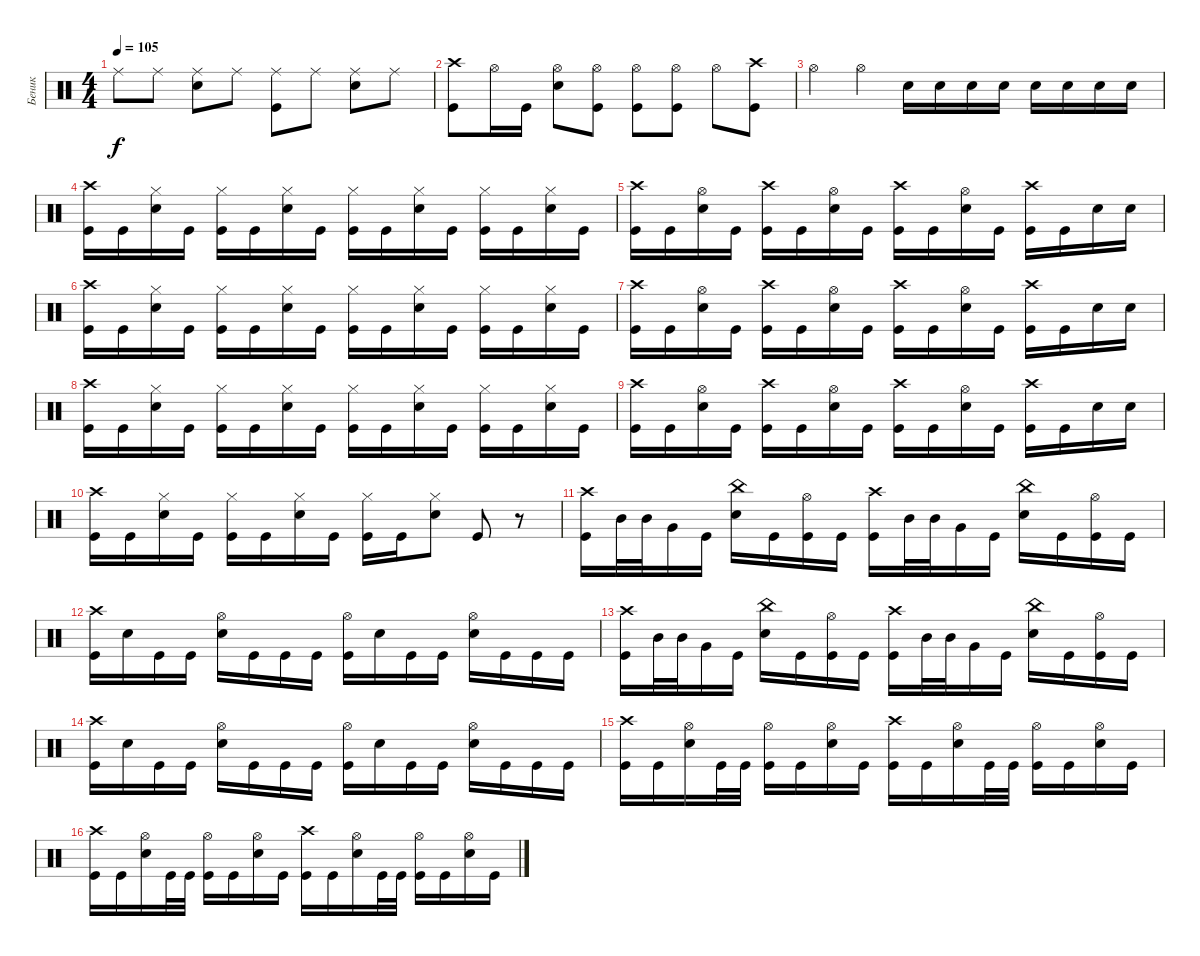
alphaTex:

\track ("Беник" "Беник") {instrument percussion}
\staff {score}
\articulation defaults
\ts (4 4)
\tempo 105
\clef neutral
\ks c "Ride (middle)".8{dy f} "Ride (middle)".8
("Ride (middle)" "Snare (hit) 2").8 "Ride (middle)".8 ("Ride (middle)" "Kick (hit)").8 "Ride (middle)".8 ("Ride (middle)" "Snare (hit) 2").8 "Ride (middle)".8 |
("Crash high (hit)" "Kick (hit)").8 "Hi-Hat (open)".16 "Kick (hit)".16 ("Hi-Hat (open)" "Snare (hit) 2").8 ("Hi-Hat (open)" "Kick (hit)").8 ("Hi-Hat (open)" "Kick (hit)").8 ("Hi-Hat (open)" "Kick (hit)").8 "Hi-Hat (open)".8 ("Kick (hit)" "Crash high (hit)").8 |
"Hi-Hat (open)".4 "Hi-Hat (open)".4 "Snare (hit) 2".16 "Snare (hit) 2".16 "Snare (hit) 2".16 "Snare (hit) 2".16 "Snare (hit) 2".16 "Snare (hit) 2".16 "Snare (hit) 2".16 "Snare (hit) 2".16 |
("Crash high (hit)" "Kick (hit)").16 "Kick (hit)".16 ("Snare (hit) 2" "Hi-Hat (closed)").16 "Kick (hit)".16 ("Kick (hit)" "Hi-Hat (closed)").16 "Kick (hit)".16 ("Snare (hit) 2" "Hi-Hat (closed)").16 "Kick (hit)".16 ("Kick (hit)" "Hi-Hat (closed)").16 "Kick (hit)".16 ("Snare (hit) 2" "Hi-Hat (closed)").16 "Kick (hit)".16 ("Kick (hit)" "Hi-Hat (closed)").16 "Kick (hit)".16 ("Snare (hit) 2" "Hi-Hat (closed)").16 "Kick (hit)".16 |
("Crash high (hit)" "Kick (hit)").16 "Kick (hit)".16 ("Snare (hit) 2" "Hi-Hat (open)").16 "Kick (hit)".16 ("Kick (hit)" "Crash high (hit)").16 "Kick (hit)".16 ("Snare (hit) 2" "Hi-Hat (open)").16 "Kick (hit)".16 ("Kick (hit)" "Crash high (hit)").16 "Kick (hit)".16 ("Snare (hit) 2" "Hi-Hat (open)").16 "Kick (hit)".16 ("Kick (hit)" "Crash high (hit)").16 "Kick (hit)".16 "Snare (hit) 2".16 "Snare (hit) 2".16 |
("Crash high (hit)" "Kick (hit)").16 "Kick (hit)".16 ("Snare (hit) 2" "Hi-Hat (closed)").16 "Kick (hit)".16 ("Kick (hit)" "Hi-Hat (closed)").16 "Kick (hit)".16 ("Snare (hit) 2" "Hi-Hat (closed)").16 "Kick (hit)".16 ("Kick (hit)" "Hi-Hat (closed)").16 "Kick (hit)".16 ("Snare (hit) 2" "Hi-Hat (closed)").16 "Kick (hit)".16 ("Kick (hit)" "Hi-Hat (closed)").16 "Kick (hit)".16 ("Snare (hit) 2" "Hi-Hat (closed)").16 "Kick (hit)".16 |
("Crash high (hit)" "Kick (hit)").16 "Kick (hit)".16 ("Snare (hit) 2" "Hi-Hat (open)").16 "Kick (hit)".16 ("Kick (hit)" "Crash high (hit)").16 "Kick (hit)".16 ("Snare (hit) 2" "Hi-Hat (open)").16 "Kick (hit)".16 ("Kick (hit)" "Crash high (hit)").16 "Kick (hit)".16 ("Snare (hit) 2" "Hi-Hat (open)").16 "Kick (hit)".16 ("Kick (hit)" "Crash high (hit)").16 "Kick (hit)".16 "Snare (hit) 2".16 "Snare (hit) 2".16 |
("Crash high (hit)" "Kick (hit)").16 "Kick (hit)".16 ("Snare (hit) 2" "Hi-Hat (closed)").16 "Kick (hit)".16 ("Kick (hit)" "Hi-Hat (closed)").16 "Kick (hit)".16 ("Snare (hit) 2" "Hi-Hat (closed)").16 "Kick (hit)".16 ("Kick (hit)" "Hi-Hat (closed)").16 "Kick (hit)".16 ("Snare (hit) 2" "Hi-Hat (closed)").16 "Kick (hit)".16 ("Kick (hit)" "Hi-Hat (closed)").16 "Kick (hit)".16 ("Snare (hit) 2" "Hi-Hat (closed)").16 "Kick (hit)".16 |
("Crash high (hit)" "Kick (hit)").16 "Kick (hit)".16 ("Snare (hit) 2" "Hi-Hat (open)").16 "Kick (hit)".16 ("Kick (hit)" "Crash high (hit)").16 "Kick (hit)".16 ("Snare (hit) 2" "Hi-Hat (open)").16 "Kick (hit)".16 ("Kick (hit)" "Crash high (hit)").16 "Kick (hit)".16 ("Snare (hit) 2" "Hi-Hat (open)").16 "Kick (hit)".16 ("Kick (hit)" "Crash high (hit)").16 "Kick (hit)".16 "Snare (hit) 2".16 "Snare (hit) 2".16 |
("Crash high (hit)" "Kick (hit)").16 "Kick (hit)".16 ("Snare (hit) 2" "Hi-Hat (closed)").16 "Kick (hit)".16 ("Kick (hit)" "Hi-Hat (closed)").16 "Kick (hit)".16 ("Snare (hit) 2" "Hi-Hat (closed)").16 "Kick (hit)".16 ("Kick (hit)" "Hi-Hat (closed)").16 "Kick (hit)".16 ("Snare (hit) 2" "Hi-Hat (closed)").8 "Kick (hit)".8 r.8 |
("Kick (hit)" "Crash high (hit)").16 "Mid Tom (hit)".32 "Mid Tom (hit)".32 "Very Low Tom (hit)".16 "Kick (hit)".16 ("Snare (hit) 2" "China (hit)").16 "Kick (hit)".16 ("Kick (hit)" "Hi-Hat (open)").16 "Kick (hit)".16 ("Kick (hit)" "Crash high (hit)").16 "Mid Tom (hit)".32 "Mid Tom (hit)".32 "Very Low Tom (hit)".16 "Kick (hit)".16 ("Snare (hit) 2" "China (hit)").16 "Kick (hit)".16 ("Kick (hit)" "Hi-Hat (open)").16 "Kick (hit)".16 |
("Kick (hit)" "Crash high (hit)").16 "Snare (hit) 2".16 "Kick (hit)".16 "Kick (hit)".16 ("Snare (hit) 2" "Hi-Hat (open)").16 "Kick (hit)".16 "Kick (hit)".16 "Kick (hit)".16 ("Kick (hit)" "Hi-Hat (open)").16 "Snare (hit) 2".16 "Kick (hit)".16 "Kick (hit)".16 ("Snare (hit) 2" "Hi-Hat (open)").16 "Kick (hit)".16 "Kick (hit)".16 "Kick (hit)".16 |
("Kick (hit)" "Crash high (hit)").16 "Mid Tom (hit)".32 "Mid Tom (hit)".32 "Very Low Tom (hit)".16 "Kick (hit)".16 ("Snare (hit) 2" "China (hit)").16 "Kick (hit)".16 ("Kick (hit)" "Hi-Hat (open)").16 "Kick (hit)".16 ("Kick (hit)" "Crash high (hit)").16 "Mid Tom (hit)".32 "Mid Tom (hit)".32 "Very Low Tom (hit)".16 "Kick (hit)".16 ("Snare (hit) 2" "China (hit)").16 "Kick (hit)".16 ("Kick (hit)" "Hi-Hat (open)").16 "Kick (hit)".16 |
("Kick (hit)" "Crash high (hit)").16 "Snare (hit) 2".16 "Kick (hit)".16 "Kick (hit)".16 ("Snare (hit) 2" "Hi-Hat (open)").16 "Kick (hit)".16 "Kick (hit)".16 "Kick (hit)".16 ("Kick (hit)" "Hi-Hat (open)").16 "Snare (hit) 2".16 "Kick (hit)".16 "Kick (hit)".16 ("Snare (hit) 2" "Hi-Hat (open)").16 "Kick (hit)".16 "Kick (hit)".16 "Kick (hit)".16 |
("Kick (hit)" "Crash high (hit)").16 "Kick (hit)".16 ("Snare (hit) 2" "Hi-Hat (open)").16 "Kick (hit)".32 "Kick (hit)".32 ("Kick (hit)" "Hi-Hat (open)").16 "Kick (hit)".16 ("Snare (hit) 2" "Hi-Hat (open)").16 "Kick (hit)".16 ("Kick (hit)" "Crash high (hit)").16 "Kick (hit)".16 ("Snare (hit) 2" "Hi-Hat (open)").16 "Kick (hit)".32 "Kick (hit)".32 ("Kick (hit)" "Hi-Hat (open)").16 "Kick (hit)".16 ("Snare (hit) 2" "Hi-Hat (open)").16 "Kick (hit)".16 |
("Kick (hit)" "Crash high (hit)").16 "Kick (hit)".16 ("Snare (hit) 2" "Hi-Hat (open)").16 "Kick (hit)".32 "Kick (hit)".32 ("Kick (hit)" "Hi-Hat (open)").16 "Kick (hit)".16 ("Snare (hit) 2" "Hi-Hat (open)").16 "Kick (hit)".16 ("Kick (hit)" "Crash high (hit)").16 "Kick (hit)".16 ("Snare (hit) 2" "Hi-Hat (open)").16 "Kick (hit)".32 "Kick (hit)".32 ("Kick (hit)" "Hi-Hat (open)").16 "Kick (hit)".16 ("Snare (hit) 2" "Hi-Hat (open)").16 "Kick (hit)".16
